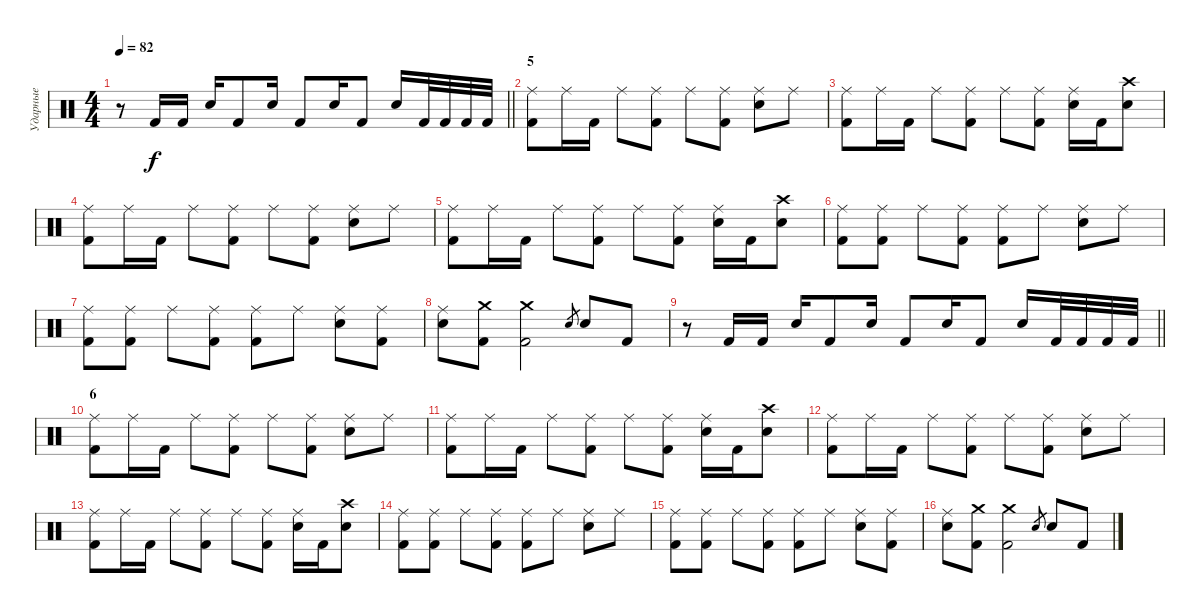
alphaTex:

\track ("Ударные" "Ударные") {mute instrument percussion}
\staff {score}
\articulation defaults
\ts (4 4)
\tempo 82
\clef neutral
\barLineRight lightlight
\ks c
r.8{dy f} "Kick (hit) 2".16 "Kick (hit) 2".16 "Snare (hit) 2".16 "Kick (hit) 2".8 "Snare (hit) 2".16 "Kick (hit) 2".8 "Snare (hit) 2".16 "Kick (hit) 2".8 "Snare (hit) 2".16 "Kick (hit) 2".32 "Kick (hit) 2".32 "Kick (hit) 2".32 "Kick (hit) 2".32 |
\section ("" "5")
("Ride (middle)" "Kick (hit) 2").8 "Ride (middle)".16 "Kick (hit) 2".16 "Ride (middle)".8 ("Ride (middle)" "Kick (hit) 2").8 "Ride (middle)".8 ("Ride (middle)" "Kick (hit) 2").8 ("Ride (middle)" "Snare (hit) 2").8 "Ride (middle)".8 |
("Ride (middle)" "Kick (hit) 2").8 "Ride (middle)".16 "Kick (hit) 2".16 "Ride (middle)".8 ("Ride (middle)" "Kick (hit) 2").8 "Ride (middle)".8 ("Ride (middle)" "Kick (hit) 2").8 ("Ride (middle)" "Snare (hit) 2").16 "Kick (hit) 2".16 ("Crash high (hit)" "Snare (hit) 2").8 |
("Ride (middle)" "Kick (hit) 2").8 "Ride (middle)".16 "Kick (hit) 2".16 "Ride (middle)".8 ("Ride (middle)" "Kick (hit) 2").8 "Ride (middle)".8 ("Ride (middle)" "Kick (hit) 2").8 ("Ride (middle)" "Snare (hit) 2").8 "Ride (middle)".8 |
("Ride (middle)" "Kick (hit) 2").8 "Ride (middle)".16 "Kick (hit) 2".16 "Ride (middle)".8 ("Ride (middle)" "Kick (hit) 2").8 "Ride (middle)".8 ("Ride (middle)" "Kick (hit) 2").8 ("Ride (middle)" "Snare (hit) 2").16 "Kick (hit) 2".16 ("Crash high (hit)" "Snare (hit) 2").8 |
("Ride (middle)" "Kick (hit) 2").8 ("Ride (middle)" "Kick (hit) 2").8 "Ride (middle)".8 ("Ride (middle)" "Kick (hit) 2").8 ("Ride (middle)" "Kick (hit) 2").8 "Ride (middle)".8 ("Ride (middle)" "Snare (hit) 2").8 "Ride (middle)".8 |
("Ride (middle)" "Kick (hit) 2").8 ("Ride (middle)" "Kick (hit) 2").8 "Ride (middle)".8 ("Ride (middle)" "Kick (hit) 2").8 ("Ride (middle)" "Kick (hit) 2").8 "Ride (middle)".8 ("Ride (middle)" "Snare (hit) 2").8 ("Ride (middle)" "Kick (hit) 2").8 |
("Ride (middle)" "Snare (hit) 2").8 ("Crash medium (hit)" "Kick (hit) 2").8 ("Crash medium (hit)" "Kick (hit) 2").2 "Snare (hit) 2".8{gr} "Snare (hit) 2".8 "Kick (hit) 2".8 |
\barLineRight lightlight
r.8 "Kick (hit) 2".16 "Kick (hit) 2".16 "Snare (hit) 2".16 "Kick (hit) 2".8 "Snare (hit) 2".16 "Kick (hit) 2".8 "Snare (hit) 2".16 "Kick (hit) 2".8 "Snare (hit) 2".16 "Kick (hit) 2".32 "Kick (hit) 2".32 "Kick (hit) 2".32 "Kick (hit) 2".32 |
\section ("" "6")
("Ride (middle)" "Kick (hit) 2").8 "Ride (middle)".16 "Kick (hit) 2".16 "Ride (middle)".8 ("Ride (middle)" "Kick (hit) 2").8 "Ride (middle)".8 ("Ride (middle)" "Kick (hit) 2").8 ("Ride (middle)" "Snare (hit) 2").8 "Ride (middle)".8 |
("Ride (middle)" "Kick (hit) 2").8 "Ride (middle)".16 "Kick (hit) 2".16 "Ride (middle)".8 ("Ride (middle)" "Kick (hit) 2").8 "Ride (middle)".8 ("Ride (middle)" "Kick (hit) 2").8 ("Ride (middle)" "Snare (hit) 2").16 "Kick (hit) 2".16 ("Crash high (hit)" "Snare (hit) 2").8 |
("Ride (middle)" "Kick (hit) 2").8 "Ride (middle)".16 "Kick (hit) 2".16 "Ride (middle)".8 ("Ride (middle)" "Kick (hit) 2").8 "Ride (middle)".8 ("Ride (middle)" "Kick (hit) 2").8 ("Ride (middle)" "Snare (hit) 2").8 "Ride (middle)".8 |
("Ride (middle)" "Kick (hit) 2").8 "Ride (middle)".16 "Kick (hit) 2".16 "Ride (middle)".8 ("Ride (middle)" "Kick (hit) 2").8 "Ride (middle)".8 ("Ride (middle)" "Kick (hit) 2").8 ("Ride (middle)" "Snare (hit) 2").16 "Kick (hit) 2".16 ("Crash high (hit)" "Snare (hit) 2").8 |
("Ride (middle)" "Kick (hit) 2").8 ("Ride (middle)" "Kick (hit) 2").8 "Ride (middle)".8 ("Ride (middle)" "Kick (hit) 2").8 ("Ride (middle)" "Kick (hit) 2").8 "Ride (middle)".8 ("Ride (middle)" "Snare (hit) 2").8 "Ride (middle)".8 |
("Ride (middle)" "Kick (hit) 2").8 ("Ride (middle)" "Kick (hit) 2").8 "Ride (middle)".8 ("Ride (middle)" "Kick (hit) 2").8 ("Ride (middle)" "Kick (hit) 2").8 "Ride (middle)".8 ("Ride (middle)" "Snare (hit) 2").8 ("Ride (middle)" "Kick (hit) 2").8 |
("Ride (middle)" "Snare (hit) 2").8 ("Crash medium (hit)" "Kick (hit) 2").8 ("Crash medium (hit)" "Kick (hit) 2").2 "Snare (hit) 2".8{gr} "Snare (hit) 2".8 "Kick (hit) 2".8
